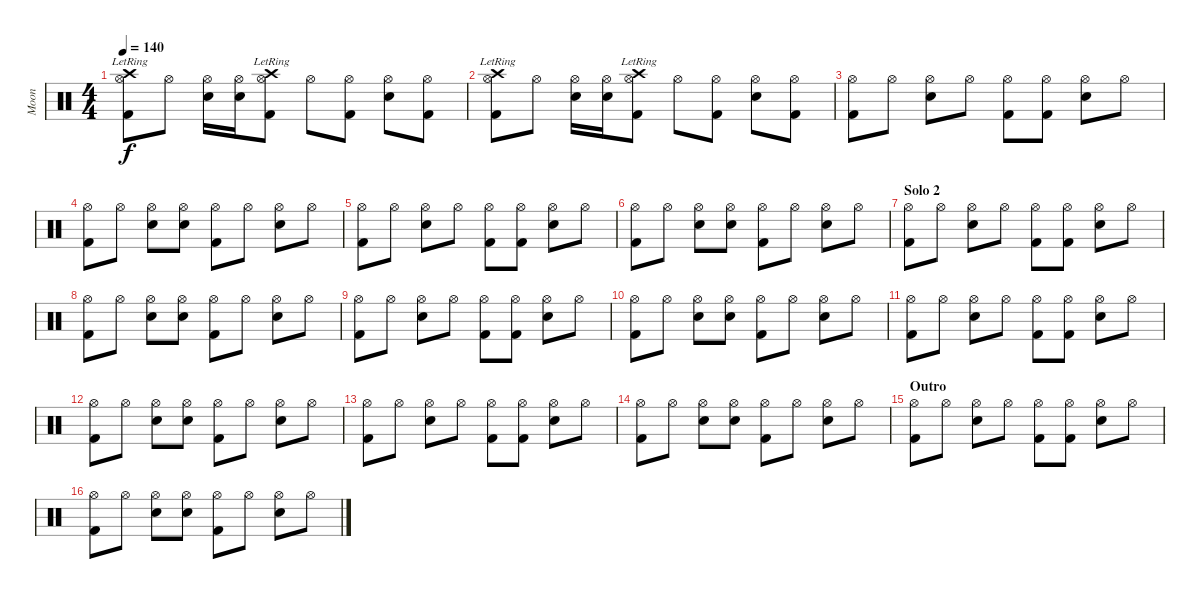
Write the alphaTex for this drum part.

\track ("Moon" "Moon") {instrument percussion}
\staff {score}
\articulation defaults
\ts (4 4)
\tempo 140
\clef neutral
\ks c
("Hi-Hat (open)" "Kick (hit) 2" "Crash high (hit)"{lr}).8{dy f} "Hi-Hat (open)".8 ("Hi-Hat (open)" "Snare (hit) 2").16 ("Hi-Hat (open)" "Snare (hit) 2").16 ("Hi-Hat (open)" "Kick (hit) 2" "Crash high (hit)"{lr}).8 "Hi-Hat (open)".8 ("Hi-Hat (open)" "Kick (hit) 2").8 ("Hi-Hat (open)" "Snare (hit) 2").8 ("Hi-Hat (open)" "Kick (hit) 2").8 |
("Hi-Hat (open)" "Kick (hit) 2" "Crash high (hit)"{lr}).8 "Hi-Hat (open)".8 ("Hi-Hat (open)" "Snare (hit) 2").16 ("Hi-Hat (open)" "Snare (hit) 2").16 ("Hi-Hat (open)" "Kick (hit) 2" "Crash high (hit)"{lr}).8 "Hi-Hat (open)".8 ("Hi-Hat (open)" "Kick (hit) 2").8 ("Hi-Hat (open)" "Snare (hit) 2").8 ("Hi-Hat (open)" "Kick (hit) 2").8 |
("Hi-Hat (open)" "Kick (hit) 2").8 "Hi-Hat (open)".8 ("Hi-Hat (open)" "Snare (hit) 2").8 "Hi-Hat (open)".8 ("Hi-Hat (open)" "Kick (hit) 2").8 ("Hi-Hat (open)" "Kick (hit) 2").8 ("Hi-Hat (open)" "Snare (hit) 2").8 "Hi-Hat (open)".8 |
("Hi-Hat (open)" "Kick (hit) 2").8 "Hi-Hat (open)".8 ("Hi-Hat (open)" "Snare (hit) 2").8 ("Hi-Hat (open)" "Snare (hit) 2").8 ("Hi-Hat (open)" "Kick (hit) 2").8 "Hi-Hat (open)".8 ("Hi-Hat (open)" "Snare (hit) 2").8 "Hi-Hat (open)".8 |
("Hi-Hat (open)" "Kick (hit) 2").8 "Hi-Hat (open)".8 ("Hi-Hat (open)" "Snare (hit) 2").8 "Hi-Hat (open)".8 ("Hi-Hat (open)" "Kick (hit) 2").8 ("Hi-Hat (open)" "Kick (hit) 2").8 ("Hi-Hat (open)" "Snare (hit) 2").8 "Hi-Hat (open)".8 |
("Hi-Hat (open)" "Kick (hit) 2").8 "Hi-Hat (open)".8 ("Hi-Hat (open)" "Snare (hit) 2").8 ("Hi-Hat (open)" "Snare (hit) 2").8 ("Hi-Hat (open)" "Kick (hit) 2").8 "Hi-Hat (open)".8 ("Hi-Hat (open)" "Snare (hit) 2").8 "Hi-Hat (open)".8 |
\section ("" "Solo 2")
("Hi-Hat (open)" "Kick (hit) 2").8 "Hi-Hat (open)".8 ("Hi-Hat (open)" "Snare (hit) 2").8 "Hi-Hat (open)".8 ("Hi-Hat (open)" "Kick (hit) 2").8 ("Hi-Hat (open)" "Kick (hit) 2").8 ("Hi-Hat (open)" "Snare (hit) 2").8 "Hi-Hat (open)".8 |
("Hi-Hat (open)" "Kick (hit) 2").8 "Hi-Hat (open)".8 ("Hi-Hat (open)" "Snare (hit) 2").8 ("Hi-Hat (open)" "Snare (hit) 2").8 ("Hi-Hat (open)" "Kick (hit) 2").8 "Hi-Hat (open)".8 ("Hi-Hat (open)" "Snare (hit) 2").8 "Hi-Hat (open)".8 |
("Hi-Hat (open)" "Kick (hit) 2").8 "Hi-Hat (open)".8 ("Hi-Hat (open)" "Snare (hit) 2").8 "Hi-Hat (open)".8 ("Hi-Hat (open)" "Kick (hit) 2").8 ("Hi-Hat (open)" "Kick (hit) 2").8 ("Hi-Hat (open)" "Snare (hit) 2").8 "Hi-Hat (open)".8 |
("Hi-Hat (open)" "Kick (hit) 2").8 "Hi-Hat (open)".8 ("Hi-Hat (open)" "Snare (hit) 2").8 ("Hi-Hat (open)" "Snare (hit) 2").8 ("Hi-Hat (open)" "Kick (hit) 2").8 "Hi-Hat (open)".8 ("Hi-Hat (open)" "Snare (hit) 2").8 "Hi-Hat (open)".8 |
("Hi-Hat (open)" "Kick (hit) 2").8 "Hi-Hat (open)".8 ("Hi-Hat (open)" "Snare (hit) 2").8 "Hi-Hat (open)".8 ("Hi-Hat (open)" "Kick (hit) 2").8 ("Hi-Hat (open)" "Kick (hit) 2").8 ("Hi-Hat (open)" "Snare (hit) 2").8 "Hi-Hat (open)".8 |
("Hi-Hat (open)" "Kick (hit) 2").8 "Hi-Hat (open)".8 ("Hi-Hat (open)" "Snare (hit) 2").8 ("Hi-Hat (open)" "Snare (hit) 2").8 ("Hi-Hat (open)" "Kick (hit) 2").8 "Hi-Hat (open)".8 ("Hi-Hat (open)" "Snare (hit) 2").8 "Hi-Hat (open)".8 |
("Hi-Hat (open)" "Kick (hit) 2").8 "Hi-Hat (open)".8 ("Hi-Hat (open)" "Snare (hit) 2").8 "Hi-Hat (open)".8 ("Hi-Hat (open)" "Kick (hit) 2").8 ("Hi-Hat (open)" "Kick (hit) 2").8 ("Hi-Hat (open)" "Snare (hit) 2").8 "Hi-Hat (open)".8 |
("Hi-Hat (open)" "Kick (hit) 2").8 "Hi-Hat (open)".8 ("Hi-Hat (open)" "Snare (hit) 2").8 ("Hi-Hat (open)" "Snare (hit) 2").8 ("Hi-Hat (open)" "Kick (hit) 2").8 "Hi-Hat (open)".8 ("Hi-Hat (open)" "Snare (hit) 2").8 "Hi-Hat (open)".8 |
\section ("" "Outro")
("Hi-Hat (open)" "Kick (hit) 2").8 "Hi-Hat (open)".8 ("Hi-Hat (open)" "Snare (hit) 2").8 "Hi-Hat (open)".8 ("Hi-Hat (open)" "Kick (hit) 2").8 ("Hi-Hat (open)" "Kick (hit) 2").8 ("Hi-Hat (open)" "Snare (hit) 2").8 "Hi-Hat (open)".8 |
("Hi-Hat (open)" "Kick (hit) 2").8 "Hi-Hat (open)".8 ("Hi-Hat (open)" "Snare (hit) 2").8 ("Hi-Hat (open)" "Snare (hit) 2").8 ("Hi-Hat (open)" "Kick (hit) 2").8 "Hi-Hat (open)".8 ("Hi-Hat (open)" "Snare (hit) 2").8 "Hi-Hat (open)".8
